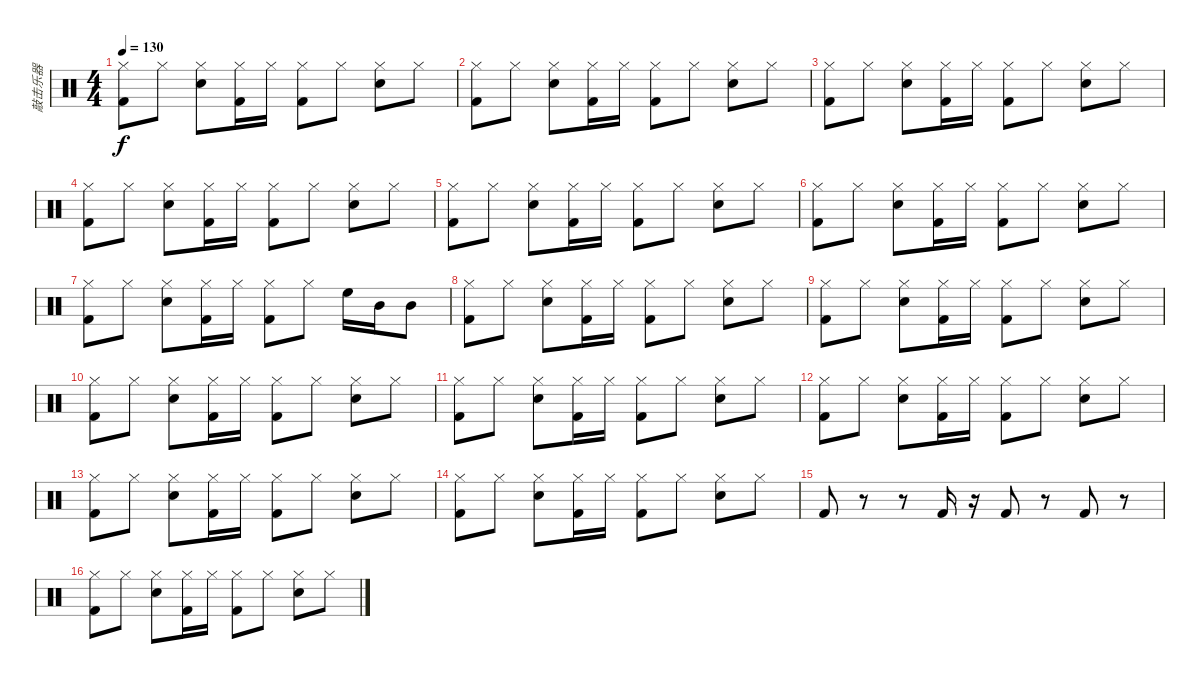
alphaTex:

\track ("敲击乐器" "敲击乐器") {instrument percussion}
\staff {score}
\articulation defaults
\ts (4 4)
\tempo 130
\clef neutral
\ks c
("Hi-Hat (closed)" "Kick (hit) 2").8{dy f} "Hi-Hat (closed)".8 ("Hi-Hat (closed)" "Snare (hit) 2").8 ("Hi-Hat (closed)" "Kick (hit) 2").16 "Hi-Hat (closed)".16 ("Hi-Hat (closed)" "Kick (hit) 2").8 "Hi-Hat (closed)".8 ("Hi-Hat (closed)" "Snare (hit) 2").8 "Hi-Hat (closed)".8 |
("Hi-Hat (closed)" "Kick (hit) 2").8 "Hi-Hat (closed)".8 ("Hi-Hat (closed)" "Snare (hit) 2").8 ("Hi-Hat (closed)" "Kick (hit) 2").16 "Hi-Hat (closed)".16 ("Hi-Hat (closed)" "Kick (hit) 2").8 "Hi-Hat (closed)".8 ("Hi-Hat (closed)" "Snare (hit) 2").8 "Hi-Hat (closed)".8 |
("Hi-Hat (closed)" "Kick (hit) 2").8 "Hi-Hat (closed)".8 ("Hi-Hat (closed)" "Snare (hit) 2").8 ("Hi-Hat (closed)" "Kick (hit) 2").16 "Hi-Hat (closed)".16 ("Hi-Hat (closed)" "Kick (hit) 2").8 "Hi-Hat (closed)".8 ("Hi-Hat (closed)" "Snare (hit) 2").8 "Hi-Hat (closed)".8 |
("Hi-Hat (closed)" "Kick (hit) 2").8 "Hi-Hat (closed)".8 ("Hi-Hat (closed)" "Snare (hit) 2").8 ("Hi-Hat (closed)" "Kick (hit) 2").16 "Hi-Hat (closed)".16 ("Hi-Hat (closed)" "Kick (hit) 2").8 "Hi-Hat (closed)".8 ("Hi-Hat (closed)" "Snare (hit) 2").8 "Hi-Hat (closed)".8 |
("Hi-Hat (closed)" "Kick (hit) 2").8 "Hi-Hat (closed)".8 ("Hi-Hat (closed)" "Snare (hit) 2").8 ("Hi-Hat (closed)" "Kick (hit) 2").16 "Hi-Hat (closed)".16 ("Hi-Hat (closed)" "Kick (hit) 2").8 "Hi-Hat (closed)".8 ("Hi-Hat (closed)" "Snare (hit) 2").8 "Hi-Hat (closed)".8 |
("Hi-Hat (closed)" "Kick (hit) 2").8 "Hi-Hat (closed)".8 ("Hi-Hat (closed)" "Snare (hit) 2").8 ("Hi-Hat (closed)" "Kick (hit) 2").16 "Hi-Hat (closed)".16 ("Hi-Hat (closed)" "Kick (hit) 2").8 "Hi-Hat (closed)".8 ("Hi-Hat (closed)" "Snare (hit) 2").8 "Hi-Hat (closed)".8 |
("Hi-Hat (closed)" "Kick (hit) 2").8 "Hi-Hat (closed)".8 ("Hi-Hat (closed)" "Snare (hit) 2").8 ("Hi-Hat (closed)" "Kick (hit) 2").16 "Hi-Hat (closed)".16 ("Hi-Hat (closed)" "Kick (hit) 2").8 "Hi-Hat (closed)".8 "High Floor Tom (hit)".16 "Mid Tom (hit)".16 "Mid Tom (hit)".8 |
("Hi-Hat (closed)" "Kick (hit) 2").8 "Hi-Hat (closed)".8 ("Hi-Hat (closed)" "Snare (hit) 2").8 ("Hi-Hat (closed)" "Kick (hit) 2").16 "Hi-Hat (closed)".16 ("Hi-Hat (closed)" "Kick (hit) 2").8 "Hi-Hat (closed)".8 ("Hi-Hat (closed)" "Snare (hit) 2").8 "Hi-Hat (closed)".8 |
("Hi-Hat (closed)" "Kick (hit) 2").8 "Hi-Hat (closed)".8 ("Hi-Hat (closed)" "Snare (hit) 2").8 ("Hi-Hat (closed)" "Kick (hit) 2").16 "Hi-Hat (closed)".16 ("Hi-Hat (closed)" "Kick (hit) 2").8 "Hi-Hat (closed)".8 ("Hi-Hat (closed)" "Snare (hit) 2").8 "Hi-Hat (closed)".8 |
("Hi-Hat (closed)" "Kick (hit) 2").8 "Hi-Hat (closed)".8 ("Hi-Hat (closed)" "Snare (hit) 2").8 ("Hi-Hat (closed)" "Kick (hit) 2").16 "Hi-Hat (closed)".16 ("Hi-Hat (closed)" "Kick (hit) 2").8 "Hi-Hat (closed)".8 ("Hi-Hat (closed)" "Snare (hit) 2").8 "Hi-Hat (closed)".8 |
("Hi-Hat (closed)" "Kick (hit) 2").8 "Hi-Hat (closed)".8 ("Hi-Hat (closed)" "Snare (hit) 2").8 ("Hi-Hat (closed)" "Kick (hit) 2").16 "Hi-Hat (closed)".16 ("Hi-Hat (closed)" "Kick (hit) 2").8 "Hi-Hat (closed)".8 ("Hi-Hat (closed)" "Snare (hit) 2").8 "Hi-Hat (closed)".8 |
("Hi-Hat (closed)" "Kick (hit) 2").8 "Hi-Hat (closed)".8 ("Hi-Hat (closed)" "Snare (hit) 2").8 ("Hi-Hat (closed)" "Kick (hit) 2").16 "Hi-Hat (closed)".16 ("Hi-Hat (closed)" "Kick (hit) 2").8 "Hi-Hat (closed)".8 ("Hi-Hat (closed)" "Snare (hit) 2").8 "Hi-Hat (closed)".8 |
("Hi-Hat (closed)" "Kick (hit) 2").8 "Hi-Hat (closed)".8 ("Hi-Hat (closed)" "Snare (hit) 2").8 ("Hi-Hat (closed)" "Kick (hit) 2").16 "Hi-Hat (closed)".16 ("Hi-Hat (closed)" "Kick (hit) 2").8 "Hi-Hat (closed)".8 ("Hi-Hat (closed)" "Snare (hit) 2").8 "Hi-Hat (closed)".8 |
("Hi-Hat (closed)" "Kick (hit) 2").8 "Hi-Hat (closed)".8 ("Hi-Hat (closed)" "Snare (hit) 2").8 ("Hi-Hat (closed)" "Kick (hit) 2").16 "Hi-Hat (closed)".16 ("Hi-Hat (closed)" "Kick (hit) 2").8 "Hi-Hat (closed)".8 ("Hi-Hat (closed)" "Snare (hit) 2").8 "Hi-Hat (closed)".8 |
"Kick (hit) 2".8 r.8 r.8 "Kick (hit) 2".16 r.16 "Kick (hit) 2".8 r.8 "Kick (hit) 2".8 r.8 |
("Hi-Hat (closed)" "Kick (hit) 2").8 "Hi-Hat (closed)".8 ("Hi-Hat (closed)" "Snare (hit) 2").8 ("Hi-Hat (closed)" "Kick (hit) 2").16 "Hi-Hat (closed)".16 ("Hi-Hat (closed)" "Kick (hit) 2").8 "Hi-Hat (closed)".8 ("Hi-Hat (closed)" "Snare (hit) 2").8 "Hi-Hat (closed)".8
